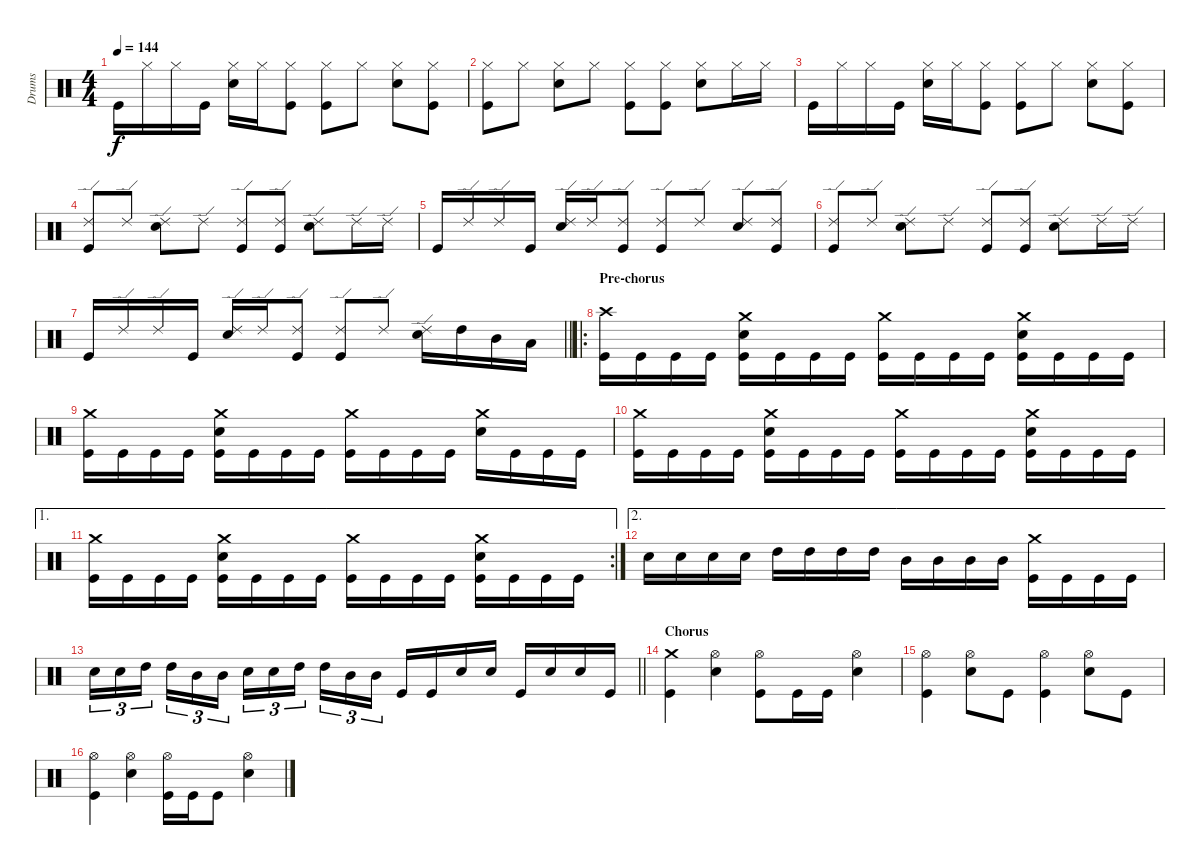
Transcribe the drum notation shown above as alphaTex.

\track ("Drums" "Drums") {instrument percussion}
\staff {score}
\articulation defaults
\ts (4 4)
\tempo 144
\clef neutral
\ks c "Kick (hit)".16{dy f} "Hi-Hat (closed)".16 "Hi-Hat (closed)".16 "Kick (hit)".16
("Hi-Hat (closed)" "Snare (hit) 2").16 "Hi-Hat (closed)".16 ("Hi-Hat (closed)" "Kick (hit)").8 ("Hi-Hat (closed)" "Kick (hit)").8 "Hi-Hat (closed)".8 ("Hi-Hat (closed)" "Snare (hit) 2").8 ("Hi-Hat (closed)" "Kick (hit)").8 |
("Hi-Hat (closed)" "Kick (hit)").8 "Hi-Hat (closed)".8 ("Hi-Hat (closed)" "Snare (hit) 2").8 "Hi-Hat (closed)".8 ("Hi-Hat (closed)" "Kick (hit)").8 ("Hi-Hat (closed)" "Kick (hit)").8 ("Hi-Hat (closed)" "Snare (hit) 2").8 "Hi-Hat (closed)".16 "Hi-Hat (closed)".16 |
"Kick (hit)".16 "Hi-Hat (closed)".16 "Hi-Hat (closed)".16 "Kick (hit)".16 ("Hi-Hat (closed)" "Snare (hit) 2").16 "Hi-Hat (closed)".16 ("Hi-Hat (closed)" "Kick (hit)").8 ("Hi-Hat (closed)" "Kick (hit)").8 "Hi-Hat (closed)".8 ("Hi-Hat (closed)" "Snare (hit) 2").8 ("Hi-Hat (closed)" "Kick (hit)").8 |
("Ride (edge) 2" "Kick (hit)").8 "Ride (edge) 2".8 ("Ride (edge) 2" "Snare (hit) 2").8 "Ride (edge) 2".8 ("Ride (edge) 2" "Kick (hit)").8 ("Ride (edge) 2" "Kick (hit)").8 ("Ride (edge) 2" "Snare (hit) 2").8 "Ride (edge) 2".16 "Ride (edge) 2".16 |
"Kick (hit)".16 "Ride (edge) 2".16 "Ride (edge) 2".16 "Kick (hit)".16 ("Ride (edge) 2" "Snare (hit) 2").16 "Ride (edge) 2".16 ("Ride (edge) 2" "Kick (hit)").8 ("Ride (edge) 2" "Kick (hit)").8 "Ride (edge) 2".8 ("Ride (edge) 2" "Snare (hit) 2").8 ("Ride (edge) 2" "Kick (hit)").8 |
("Ride (edge) 2" "Kick (hit)").8 "Ride (edge) 2".8 ("Ride (edge) 2" "Snare (hit) 2").8 "Ride (edge) 2".8 ("Ride (edge) 2" "Kick (hit)").8 ("Ride (edge) 2" "Kick (hit)").8 ("Ride (edge) 2" "Snare (hit) 2").8 "Ride (edge) 2".16 "Ride (edge) 2".16 |
\barLineRight lightlight "Kick (hit)".16 "Ride (edge) 2".16 "Ride (edge) 2".16 "Kick (hit)".16
("Ride (edge) 2" "Snare (hit) 2").16 "Ride (edge) 2".16 ("Ride (edge) 2" "Kick (hit)").8 ("Ride (edge) 2" "Kick (hit)").8 "Ride (edge) 2".8 ("Ride (edge) 2" "Snare (hit) 2").16 "High Tom (hit)".16 "Mid Tom (hit)".16 "Low Tom (hit)".16 |
\ro
\section ("" "Pre-chorus")
("Crash high (hit)" "Kick (hit)").16 "Kick (hit)".16 "Kick (hit)".16 "Kick (hit)".16 ("Crash medium (hit)" "Snare (hit) 2" "Kick (hit)").16 "Kick (hit)".16 "Kick (hit)".16 "Kick (hit)".16 ("Crash medium (hit)" "Kick (hit)").16 "Kick (hit)".16 "Kick (hit)".16 "Kick (hit)".16 ("Crash medium (hit)" "Snare (hit) 2" "Kick (hit)").16 "Kick (hit)".16 "Kick (hit)".16 "Kick (hit)".16 |
("Crash medium (hit)" "Kick (hit)").16 "Kick (hit)".16 "Kick (hit)".16 "Kick (hit)".16 ("Crash medium (hit)" "Snare (hit) 2" "Kick (hit)").16 "Kick (hit)".16 "Kick (hit)".16 "Kick (hit)".16 ("Crash medium (hit)" "Kick (hit)").16 "Kick (hit)".16 "Kick (hit)".16 "Kick (hit)".16 ("Crash medium (hit)" "Snare (hit) 2").16 "Kick (hit)".16 "Kick (hit)".16 "Kick (hit)".16 |
("Crash medium (hit)" "Kick (hit)").16 "Kick (hit)".16 "Kick (hit)".16 "Kick (hit)".16 ("Crash medium (hit)" "Snare (hit) 2" "Kick (hit)").16 "Kick (hit)".16 "Kick (hit)".16 "Kick (hit)".16 ("Crash medium (hit)" "Kick (hit)").16 "Kick (hit)".16 "Kick (hit)".16 "Kick (hit)".16 ("Crash medium (hit)" "Snare (hit) 2" "Kick (hit)").16 "Kick (hit)".16 "Kick (hit)".16 "Kick (hit)".16 |
\ae 1
\rc 2
("Crash medium (hit)" "Kick (hit)").16 "Kick (hit)".16 "Kick (hit)".16 "Kick (hit)".16 ("Crash medium (hit)" "Snare (hit) 2" "Kick (hit)").16 "Kick (hit)".16 "Kick (hit)".16 "Kick (hit)".16 ("Crash medium (hit)" "Kick (hit)").16 "Kick (hit)".16 "Kick (hit)".16 "Kick (hit)".16 ("Crash medium (hit)" "Snare (hit) 2" "Kick (hit)").16 "Kick (hit)".16 "Kick (hit)".16 "Kick (hit)".16 |
\ae 2 "Snare (hit) 2".16 "Snare (hit) 2".16 "Snare (hit) 2".16 "Snare (hit) 2".16 "High Tom (hit)".16 "High Tom (hit)".16 "High Tom (hit)".16 "High Tom (hit)".16 "Mid Tom (hit)".16 "Mid Tom (hit)".16 "Mid Tom (hit)".16 "Mid Tom (hit)".16
("Crash medium (hit)" "Kick (hit)").16 "Kick (hit)".16 "Kick (hit)".16 "Kick (hit)".16 |
\barLineRight lightlight "Snare (hit) 2".16{tu (3 2)} "Snare (hit) 2".16{tu (3 2)} "High Tom (hit)".16{tu (3 2) beam splitsecondary} "High Tom (hit)".16{tu (3 2)} "Mid Tom (hit)".16{tu (3 2)} "Mid Tom (hit)".16{tu (3 2)} "Snare (hit) 2".16{tu (3 2)} "Snare (hit) 2".16{tu (3 2)} "High Tom (hit)".16{tu (3 2) beam splitsecondary} "High Tom (hit)".16{tu (3 2)} "Mid Tom (hit)".16{tu (3 2)} "Mid Tom (hit)".16{tu (3 2)} "Kick (hit)".16 "Kick (hit)".16 "Snare (hit) 2".16 "Snare (hit) 2".16 "Kick (hit)".16 "Snare (hit) 2".16 "Snare (hit) 2".16 "Kick (hit)".16
|
\section ("" "Chorus")
("Crash medium (hit)" "Kick (hit)").4 ("Hi-Hat (open)" "Snare (hit) 2").4 ("Hi-Hat (open)" "Kick (hit)").8 "Kick (hit)".16 "Kick (hit)".16 ("Hi-Hat (open)" "Snare (hit) 2").4 |
("Hi-Hat (open)" "Kick (hit)").4 ("Hi-Hat (open)" "Snare (hit) 2").8 "Kick (hit)".8 ("Hi-Hat (open)" "Kick (hit)").4 ("Hi-Hat (open)" "Snare (hit) 2").8 "Kick (hit)".8 |
("Hi-Hat (open)" "Kick (hit)").4 ("Hi-Hat (open)" "Snare (hit) 2").4 ("Hi-Hat (open)" "Kick (hit)").16 "Kick (hit)".16 "Kick (hit)".8 ("Hi-Hat (open)" "Snare (hit) 2").4
